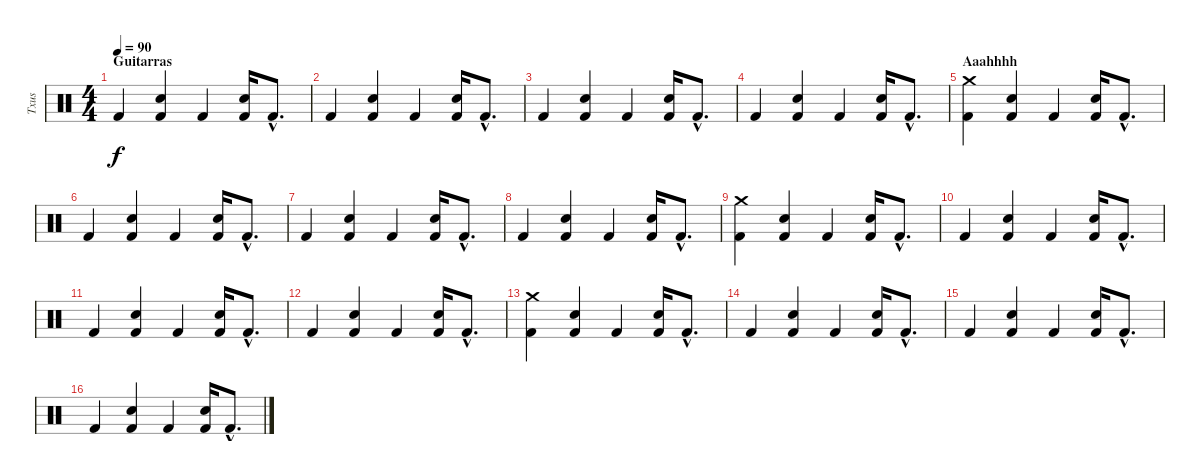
\track ("Txus" "Txus") {instrument percussion}
\staff {score}
\articulation defaults
\ts (4 4)
\section ("" "Guitarras")
\tempo 90
\clef neutral
\ks c "Kick (hit) 2".4{dy f}
("Kick (hit) 2" "Electric Snare (hit)").4 "Kick (hit) 2".4 ("Kick (hit) 2" "Electric Snare (hit)").16 "Kick (hit) 2"{hac}.8{d} |
"Kick (hit) 2".4 ("Kick (hit) 2" "Electric Snare (hit)").4 "Kick (hit) 2".4 ("Kick (hit) 2" "Electric Snare (hit)").16 "Kick (hit) 2"{hac}.8{d} |
"Kick (hit) 2".4 ("Kick (hit) 2" "Electric Snare (hit)").4 "Kick (hit) 2".4 ("Kick (hit) 2" "Electric Snare (hit)").16 "Kick (hit) 2"{hac}.8{d} |
"Kick (hit) 2".4 ("Kick (hit) 2" "Electric Snare (hit)").4 "Kick (hit) 2".4 ("Kick (hit) 2" "Electric Snare (hit)").16 "Kick (hit) 2"{hac}.8{d} |
\section ("" "Aaahhhh")
("Kick (hit) 2" "Crash medium (hit)").4 ("Kick (hit) 2" "Electric Snare (hit)").4 "Kick (hit) 2".4 ("Kick (hit) 2" "Electric Snare (hit)").16 "Kick (hit) 2"{hac}.8{d} |
"Kick (hit) 2".4 ("Kick (hit) 2" "Electric Snare (hit)").4 "Kick (hit) 2".4 ("Kick (hit) 2" "Electric Snare (hit)").16 "Kick (hit) 2"{hac}.8{d} |
"Kick (hit) 2".4 ("Kick (hit) 2" "Electric Snare (hit)").4 "Kick (hit) 2".4 ("Kick (hit) 2" "Electric Snare (hit)").16 "Kick (hit) 2"{hac}.8{d} |
"Kick (hit) 2".4 ("Kick (hit) 2" "Electric Snare (hit)").4 "Kick (hit) 2".4 ("Kick (hit) 2" "Electric Snare (hit)").16 "Kick (hit) 2"{hac}.8{d} |
("Kick (hit) 2" "Crash medium (hit)").4 ("Kick (hit) 2" "Electric Snare (hit)").4 "Kick (hit) 2".4 ("Kick (hit) 2" "Electric Snare (hit)").16 "Kick (hit) 2"{hac}.8{d} |
"Kick (hit) 2".4 ("Kick (hit) 2" "Electric Snare (hit)").4 "Kick (hit) 2".4{volume 9} ("Kick (hit) 2" "Electric Snare (hit)").16 "Kick (hit) 2"{hac}.8{d} |
"Kick (hit) 2".4 ("Kick (hit) 2" "Electric Snare (hit)").4 "Kick (hit) 2".4 ("Kick (hit) 2" "Electric Snare (hit)").16 "Kick (hit) 2"{hac}.8{d} |
"Kick (hit) 2".4 ("Kick (hit) 2" "Electric Snare (hit)").4 "Kick (hit) 2".4 ("Kick (hit) 2" "Electric Snare (hit)").16 "Kick (hit) 2"{hac}.8{d} |
("Kick (hit) 2" "Crash medium (hit)").4{volume 8} ("Kick (hit) 2" "Electric Snare (hit)").4 "Kick (hit) 2".4 ("Kick (hit) 2" "Electric Snare (hit)").16 "Kick (hit) 2"{hac}.8{d} |
"Kick (hit) 2".4 ("Kick (hit) 2" "Electric Snare (hit)").4 "Kick (hit) 2".4 ("Kick (hit) 2" "Electric Snare (hit)").16 "Kick (hit) 2"{hac}.8{d} |
"Kick (hit) 2".4 ("Kick (hit) 2" "Electric Snare (hit)").4 "Kick (hit) 2".4 ("Kick (hit) 2" "Electric Snare (hit)").16 "Kick (hit) 2"{hac}.8{d} |
"Kick (hit) 2".4 ("Kick (hit) 2" "Electric Snare (hit)").4 "Kick (hit) 2".4 ("Kick (hit) 2" "Electric Snare (hit)").16 "Kick (hit) 2"{hac}.8{d}
